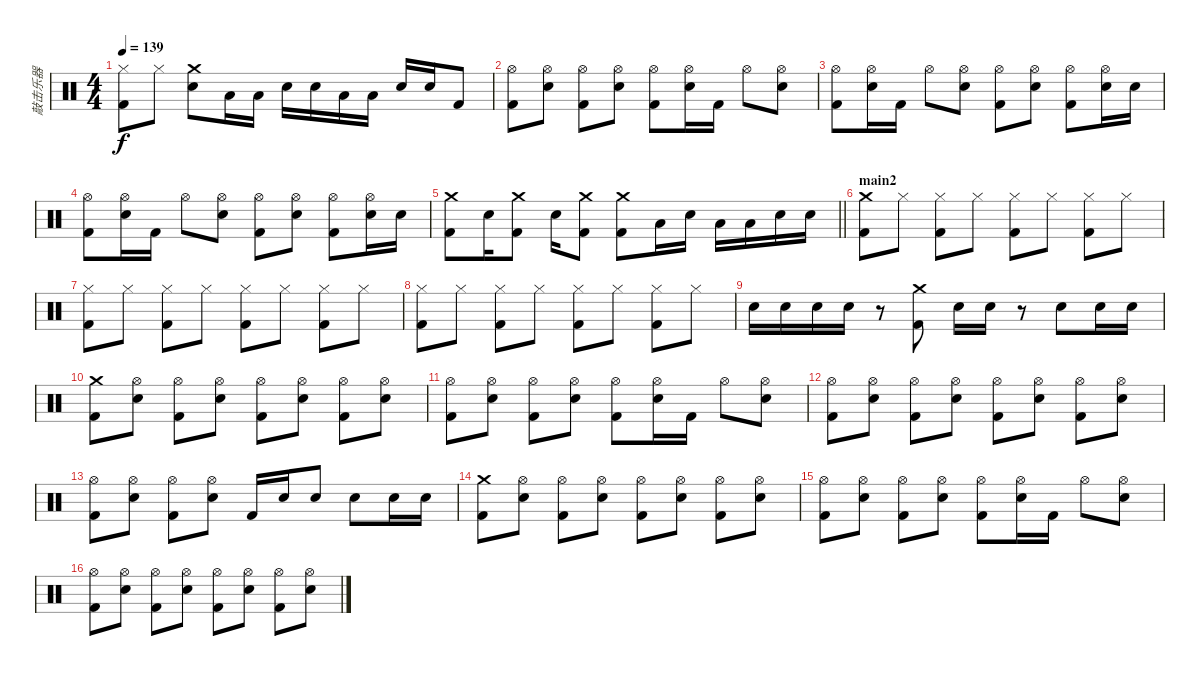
\track ("敲击乐器" "敲击乐器") {instrument percussion}
\staff {score}
\articulation defaults
\ts (4 4)
\tempo 139
\clef neutral
\ks c
("Hi-Hat (closed)" "Kick (hit) 2").8{dy f} "Hi-Hat (closed)".8 ("Crash medium (hit)" "Electric Snare (hit)").8 "Low Tom (hit)".16 "Low Tom (hit)".16 "Electric Snare (hit)".16 "Electric Snare (hit)".16 "Low Tom (hit)".16 "Low Tom (hit)".16 "Electric Snare (hit)".16 "Electric Snare (hit)".16 "Kick (hit) 2".8 |
("Hi-Hat (open)" "Kick (hit) 2").8 ("Hi-Hat (open)" "Electric Snare (hit)").8 ("Hi-Hat (open)" "Kick (hit) 2").8 ("Hi-Hat (open)" "Electric Snare (hit)").8 ("Hi-Hat (open)" "Kick (hit) 2").8 ("Hi-Hat (open)" "Electric Snare (hit)").16 "Kick (hit) 2".16 "Hi-Hat (open)".8 ("Hi-Hat (open)" "Electric Snare (hit)").8 |
("Hi-Hat (open)" "Kick (hit) 2").8 ("Hi-Hat (open)" "Electric Snare (hit)").16 "Kick (hit) 2".16 "Hi-Hat (open)".8 ("Hi-Hat (open)" "Electric Snare (hit)").8 ("Hi-Hat (open)" "Kick (hit) 2").8 ("Hi-Hat (open)" "Electric Snare (hit)").8 ("Hi-Hat (open)" "Kick (hit) 2").8 ("Hi-Hat (open)" "Electric Snare (hit)").16 "Electric Snare (hit)".16 |
("Hi-Hat (open)" "Kick (hit) 2").8 ("Hi-Hat (open)" "Electric Snare (hit)").16 "Kick (hit) 2".16 "Hi-Hat (open)".8 ("Hi-Hat (open)" "Electric Snare (hit)").8 ("Hi-Hat (open)" "Kick (hit) 2").8 ("Hi-Hat (open)" "Electric Snare (hit)").8 ("Hi-Hat (open)" "Kick (hit) 2").8 ("Hi-Hat (open)" "Electric Snare (hit)").16 "Electric Snare (hit)".16 |
\barLineRight lightlight
("Crash medium (hit)" "Kick (hit) 2").8 "Electric Snare (hit)".16 ("Crash medium (hit)" "Kick (hit) 2").8 "Electric Snare (hit)".16 ("Crash medium (hit)" "Kick (hit) 2").8 ("Crash medium (hit)" "Kick (hit) 2").8 "Low Tom (hit)".16 "Electric Snare (hit)".16 "Low Tom (hit)".16 "Low Tom (hit)".16 "Electric Snare (hit)".16 "Electric Snare (hit)".16 |
\section ("" "main2")
("Crash medium (hit)" "Kick (hit) 2").8 "Hi-Hat (closed)".8 ("Hi-Hat (closed)" "Kick (hit) 2").8 "Hi-Hat (closed)".8 ("Hi-Hat (closed)" "Kick (hit) 2").8 "Hi-Hat (closed)".8 ("Hi-Hat (closed)" "Kick (hit) 2").8 "Hi-Hat (closed)".8 |
("Hi-Hat (closed)" "Kick (hit) 2").8 "Hi-Hat (closed)".8 ("Hi-Hat (closed)" "Kick (hit) 2").8 "Hi-Hat (closed)".8 ("Hi-Hat (closed)" "Kick (hit) 2").8 "Hi-Hat (closed)".8 ("Hi-Hat (closed)" "Kick (hit) 2").8 "Hi-Hat (closed)".8 |
("Hi-Hat (closed)" "Kick (hit) 2").8 "Hi-Hat (closed)".8 ("Hi-Hat (closed)" "Kick (hit) 2").8 "Hi-Hat (closed)".8 ("Hi-Hat (closed)" "Kick (hit) 2").8 "Hi-Hat (closed)".8 ("Hi-Hat (closed)" "Kick (hit) 2").8 "Hi-Hat (closed)".8 |
"Electric Snare (hit)".16 "Electric Snare (hit)".16 "Electric Snare (hit)".16 "Electric Snare (hit)".16 r.8 ("Crash medium (hit)" "Kick (hit) 2").8 "Electric Snare (hit)".16 "Electric Snare (hit)".16 r.8 "Electric Snare (hit)".8 "Electric Snare (hit)".16 "Electric Snare (hit)".16 |
("Crash medium (hit)" "Kick (hit) 2").8 ("Hi-Hat (open)" "Electric Snare (hit)").8 ("Hi-Hat (open)" "Kick (hit) 2").8 ("Hi-Hat (open)" "Electric Snare (hit)").8 ("Hi-Hat (open)" "Kick (hit) 2").8 ("Hi-Hat (open)" "Electric Snare (hit)").8 ("Hi-Hat (open)" "Kick (hit) 2").8 ("Hi-Hat (open)" "Electric Snare (hit)").8 |
("Hi-Hat (open)" "Kick (hit) 2").8 ("Hi-Hat (open)" "Electric Snare (hit)").8 ("Hi-Hat (open)" "Kick (hit) 2").8 ("Hi-Hat (open)" "Electric Snare (hit)").8 ("Hi-Hat (open)" "Kick (hit) 2").8 ("Hi-Hat (open)" "Electric Snare (hit)").16 "Kick (hit) 2".16 "Hi-Hat (open)".8 ("Hi-Hat (open)" "Electric Snare (hit)").8 |
("Hi-Hat (open)" "Kick (hit) 2").8 ("Hi-Hat (open)" "Electric Snare (hit)").8 ("Hi-Hat (open)" "Kick (hit) 2").8 ("Hi-Hat (open)" "Electric Snare (hit)").8 ("Hi-Hat (open)" "Kick (hit) 2").8 ("Hi-Hat (open)" "Electric Snare (hit)").8 ("Hi-Hat (open)" "Kick (hit) 2").8 ("Hi-Hat (open)" "Electric Snare (hit)").8 |
("Hi-Hat (open)" "Kick (hit) 2").8 ("Hi-Hat (open)" "Electric Snare (hit)").8 ("Hi-Hat (open)" "Kick (hit) 2").8 ("Hi-Hat (open)" "Electric Snare (hit)").8 "Kick (hit) 2".16 "Electric Snare (hit)".16 "Electric Snare (hit)".8 "Electric Snare (hit)".8 "Electric Snare (hit)".16 "Electric Snare (hit)".16 |
("Crash medium (hit)" "Kick (hit) 2").8 ("Hi-Hat (open)" "Electric Snare (hit)").8 ("Hi-Hat (open)" "Kick (hit) 2").8 ("Hi-Hat (open)" "Electric Snare (hit)").8 ("Hi-Hat (open)" "Kick (hit) 2").8 ("Hi-Hat (open)" "Electric Snare (hit)").8 ("Hi-Hat (open)" "Kick (hit) 2").8 ("Hi-Hat (open)" "Electric Snare (hit)").8 |
("Hi-Hat (open)" "Kick (hit) 2").8 ("Hi-Hat (open)" "Electric Snare (hit)").8 ("Hi-Hat (open)" "Kick (hit) 2").8 ("Hi-Hat (open)" "Electric Snare (hit)").8 ("Hi-Hat (open)" "Kick (hit) 2").8 ("Hi-Hat (open)" "Electric Snare (hit)").16 "Kick (hit) 2".16 "Hi-Hat (open)".8 ("Hi-Hat (open)" "Electric Snare (hit)").8 |
("Hi-Hat (open)" "Kick (hit) 2").8 ("Hi-Hat (open)" "Electric Snare (hit)").8 ("Hi-Hat (open)" "Kick (hit) 2").8 ("Hi-Hat (open)" "Electric Snare (hit)").8 ("Hi-Hat (open)" "Kick (hit) 2").8 ("Hi-Hat (open)" "Electric Snare (hit)").8 ("Hi-Hat (open)" "Kick (hit) 2").8 ("Hi-Hat (open)" "Electric Snare (hit)").8
